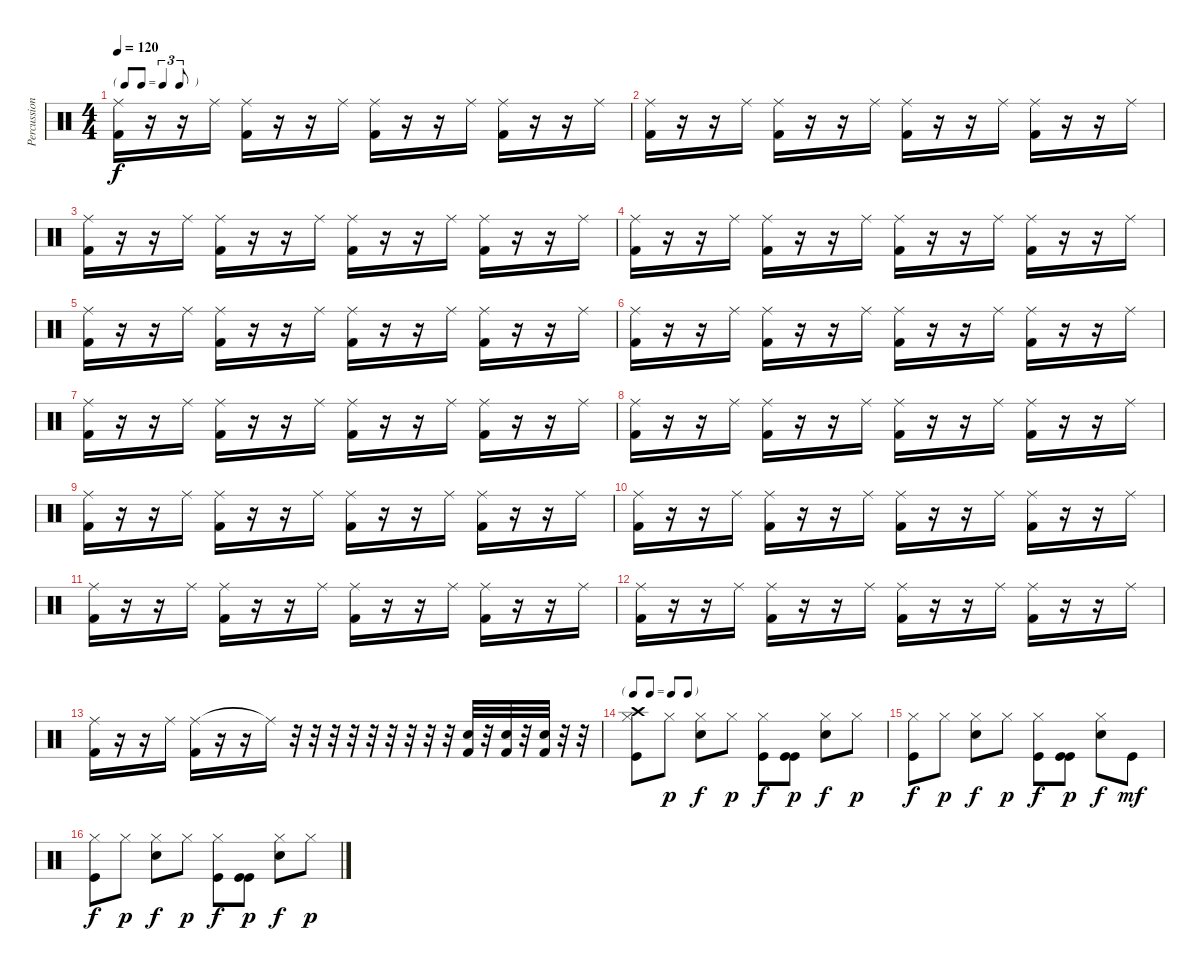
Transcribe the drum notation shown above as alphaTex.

\track ("Percussions" "Percussion") {instrument percussion}
\staff {score}
\articulation defaults
\ts (4 4)
\tf triplet8th
\tempo 120
\clef neutral
\ks c
("Ride (middle)" "Kick (hit) 2").16{dy f} r.16 r.16 "Ride (middle)".16 ("Ride (middle)" "Kick (hit) 2").16 r.16 r.16 "Ride (middle)".16 ("Ride (middle)" "Kick (hit) 2").16 r.16 r.16 "Ride (middle)".16 ("Ride (middle)" "Kick (hit) 2").16 r.16 r.16 "Ride (middle)".16 |
("Ride (middle)" "Kick (hit) 2").16 r.16 r.16 "Ride (middle)".16 ("Ride (middle)" "Kick (hit) 2").16 r.16 r.16 "Ride (middle)".16 ("Ride (middle)" "Kick (hit) 2").16 r.16 r.16 "Ride (middle)".16 ("Ride (middle)" "Kick (hit) 2").16 r.16 r.16 "Ride (middle)".16 |
("Ride (middle)" "Kick (hit) 2").16 r.16 r.16 "Ride (middle)".16 ("Ride (middle)" "Kick (hit) 2").16 r.16 r.16 "Ride (middle)".16 ("Ride (middle)" "Kick (hit) 2").16 r.16 r.16 "Ride (middle)".16 ("Ride (middle)" "Kick (hit) 2").16 r.16 r.16 "Ride (middle)".16 |
("Ride (middle)" "Kick (hit) 2").16 r.16 r.16 "Ride (middle)".16 ("Ride (middle)" "Kick (hit) 2").16 r.16 r.16 "Ride (middle)".16 ("Ride (middle)" "Kick (hit) 2").16 r.16 r.16 "Ride (middle)".16 ("Ride (middle)" "Kick (hit) 2").16 r.16 r.16 "Ride (middle)".16 |
("Ride (middle)" "Kick (hit) 2").16 r.16 r.16 "Ride (middle)".16 ("Ride (middle)" "Kick (hit) 2").16 r.16 r.16 "Ride (middle)".16 ("Ride (middle)" "Kick (hit) 2").16 r.16 r.16 "Ride (middle)".16 ("Ride (middle)" "Kick (hit) 2").16 r.16 r.16 "Ride (middle)".16 |
("Ride (middle)" "Kick (hit) 2").16 r.16 r.16 "Ride (middle)".16 ("Ride (middle)" "Kick (hit) 2").16 r.16 r.16 "Ride (middle)".16 ("Ride (middle)" "Kick (hit) 2").16 r.16 r.16 "Ride (middle)".16 ("Ride (middle)" "Kick (hit) 2").16 r.16 r.16 "Ride (middle)".16 |
("Ride (middle)" "Kick (hit) 2").16 r.16 r.16 "Ride (middle)".16 ("Ride (middle)" "Kick (hit) 2").16 r.16 r.16 "Ride (middle)".16 ("Ride (middle)" "Kick (hit) 2").16 r.16 r.16 "Ride (middle)".16 ("Ride (middle)" "Kick (hit) 2").16 r.16 r.16 "Ride (middle)".16 |
("Ride (middle)" "Kick (hit) 2").16 r.16 r.16 "Ride (middle)".16 ("Ride (middle)" "Kick (hit) 2").16 r.16 r.16 "Ride (middle)".16 ("Ride (middle)" "Kick (hit) 2").16 r.16 r.16 "Ride (middle)".16 ("Ride (middle)" "Kick (hit) 2").16 r.16 r.16 "Ride (middle)".16 |
("Ride (middle)" "Kick (hit) 2").16 r.16 r.16 "Ride (middle)".16 ("Ride (middle)" "Kick (hit) 2").16 r.16 r.16 "Ride (middle)".16 ("Ride (middle)" "Kick (hit) 2").16 r.16 r.16 "Ride (middle)".16 ("Ride (middle)" "Kick (hit) 2").16 r.16 r.16 "Ride (middle)".16 |
("Ride (middle)" "Kick (hit) 2").16 r.16 r.16 "Ride (middle)".16 ("Ride (middle)" "Kick (hit) 2").16 r.16 r.16 "Ride (middle)".16 ("Ride (middle)" "Kick (hit) 2").16 r.16 r.16 "Ride (middle)".16 ("Ride (middle)" "Kick (hit) 2").16 r.16 r.16 "Ride (middle)".16 |
("Ride (middle)" "Kick (hit) 2").16 r.16 r.16 "Ride (middle)".16 ("Ride (middle)" "Kick (hit) 2").16 r.16 r.16 "Ride (middle)".16 ("Ride (middle)" "Kick (hit) 2").16 r.16 r.16 "Ride (middle)".16 ("Ride (middle)" "Kick (hit) 2").16 r.16 r.16 "Ride (middle)".16 |
("Ride (middle)" "Kick (hit) 2").16 r.16 r.16 "Ride (middle)".16 ("Ride (middle)" "Kick (hit) 2").16 r.16 r.16 "Ride (middle)".16 ("Ride (middle)" "Kick (hit) 2").16 r.16 r.16 "Ride (middle)".16 ("Ride (middle)" "Kick (hit) 2").16 r.16 r.16 "Ride (middle)".16 |
("Ride (middle)" "Kick (hit) 2").16 r.16 r.16 "Ride (middle)".16 ("Ride (middle)" "Kick (hit) 2").16 r.16 r.16 "Ride (middle)"{t}.16 r.32 r.32 r.32 r.32 r.32 r.32 r.32 r.32 r.32 ("Electric Snare (hit)" "Kick (hit) 2").32 r.32 ("Electric Snare (hit)" "Kick (hit) 2").32 r.32 ("Electric Snare (hit)" "Kick (hit) 2").32 r.32 r.32 |
\tf none
("Kick (hit)" "Hi-Hat (closed)" "Crash high (hit)").8 "Hi-Hat (closed)".8{dy p} ("Snare (hit) 2" "Hi-Hat (closed)").8{dy f} "Hi-Hat (closed)".8{dy p} ("Kick (hit)" "Hi-Hat (closed)").8{dy f} ("Kick (hit)" "Kick (hit)").8{dy p} ("Snare (hit) 2" "Hi-Hat (closed)").8{dy f} "Hi-Hat (closed)".8{dy p} |
("Kick (hit)" "Hi-Hat (closed)").8{dy f} "Hi-Hat (closed)".8{dy p} ("Snare (hit) 2" "Hi-Hat (closed)").8{dy f} "Hi-Hat (closed)".8{dy p} ("Kick (hit)" "Hi-Hat (closed)").8{dy f} ("Kick (hit)" "Kick (hit)").8{dy p} ("Snare (hit) 2" "Hi-Hat (closed)").8{dy f} "Kick (hit)".8{dy mf} |
("Kick (hit)" "Hi-Hat (closed)").8{dy f} "Hi-Hat (closed)".8{dy p} ("Snare (hit) 2" "Hi-Hat (closed)").8{dy f} "Hi-Hat (closed)".8{dy p} ("Kick (hit)" "Hi-Hat (closed)").8{dy f} ("Kick (hit)" "Kick (hit)").8{dy p} ("Snare (hit) 2" "Hi-Hat (closed)").8{dy f} "Hi-Hat (closed)".8{dy p}
